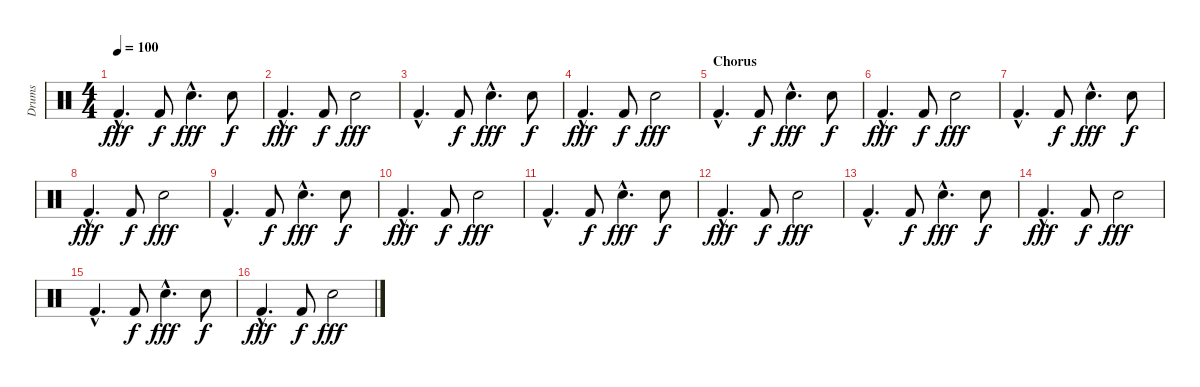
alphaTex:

\track ("Drums" "Drums") {instrument percussion}
\staff {score}
\articulation defaults
\ts (4 4)
\tempo 100
\clef neutral
\ks c "Kick (hit) 2"{hac}.4{d dy fff} "Kick (hit) 2".8{dy f} "Electric Snare (hit)"{hac}.4{d dy fff} "Electric Snare (hit)".8{dy f}
|
"Kick (hit) 2"{hac}.4{d dy fff} "Kick (hit) 2".8{dy f} "Electric Snare (hit)".2{dy fff} |
"Kick (hit) 2"{hac}.4{d} "Kick (hit) 2".8{dy f} "Electric Snare (hit)"{hac}.4{d dy fff} "Electric Snare (hit)".8{dy f} |
"Kick (hit) 2"{hac}.4{d dy fff} "Kick (hit) 2".8{dy f} "Electric Snare (hit)".2{dy fff} |
\section ("" "Chorus")
"Kick (hit) 2"{hac}.4{d} "Kick (hit) 2".8{dy f} "Electric Snare (hit)"{hac}.4{d dy fff} "Electric Snare (hit)".8{dy f} |
"Kick (hit) 2"{hac}.4{d dy fff} "Kick (hit) 2".8{dy f} "Electric Snare (hit)".2{dy fff} |
"Kick (hit) 2"{hac}.4{d} "Kick (hit) 2".8{dy f} "Electric Snare (hit)"{hac}.4{d dy fff} "Electric Snare (hit)".8{dy f} |
"Kick (hit) 2"{hac}.4{d dy fff} "Kick (hit) 2".8{dy f} "Electric Snare (hit)".2{dy fff} |
"Kick (hit) 2"{hac}.4{d} "Kick (hit) 2".8{dy f} "Electric Snare (hit)"{hac}.4{d dy fff} "Electric Snare (hit)".8{dy f} |
"Kick (hit) 2"{hac}.4{d dy fff} "Kick (hit) 2".8{dy f} "Electric Snare (hit)".2{dy fff} |
"Kick (hit) 2"{hac}.4{d} "Kick (hit) 2".8{dy f} "Electric Snare (hit)"{hac}.4{d dy fff} "Electric Snare (hit)".8{dy f} |
"Kick (hit) 2"{hac}.4{d dy fff} "Kick (hit) 2".8{dy f} "Electric Snare (hit)".2{dy fff} |
"Kick (hit) 2"{hac}.4{d} "Kick (hit) 2".8{dy f} "Electric Snare (hit)"{hac}.4{d dy fff} "Electric Snare (hit)".8{dy f} |
"Kick (hit) 2"{hac}.4{d dy fff} "Kick (hit) 2".8{dy f} "Electric Snare (hit)".2{dy fff} |
"Kick (hit) 2"{hac}.4{d} "Kick (hit) 2".8{dy f} "Electric Snare (hit)"{hac}.4{d dy fff} "Electric Snare (hit)".8{dy f} |
"Kick (hit) 2"{hac}.4{d dy fff} "Kick (hit) 2".8{dy f} "Electric Snare (hit)".2{dy fff}
